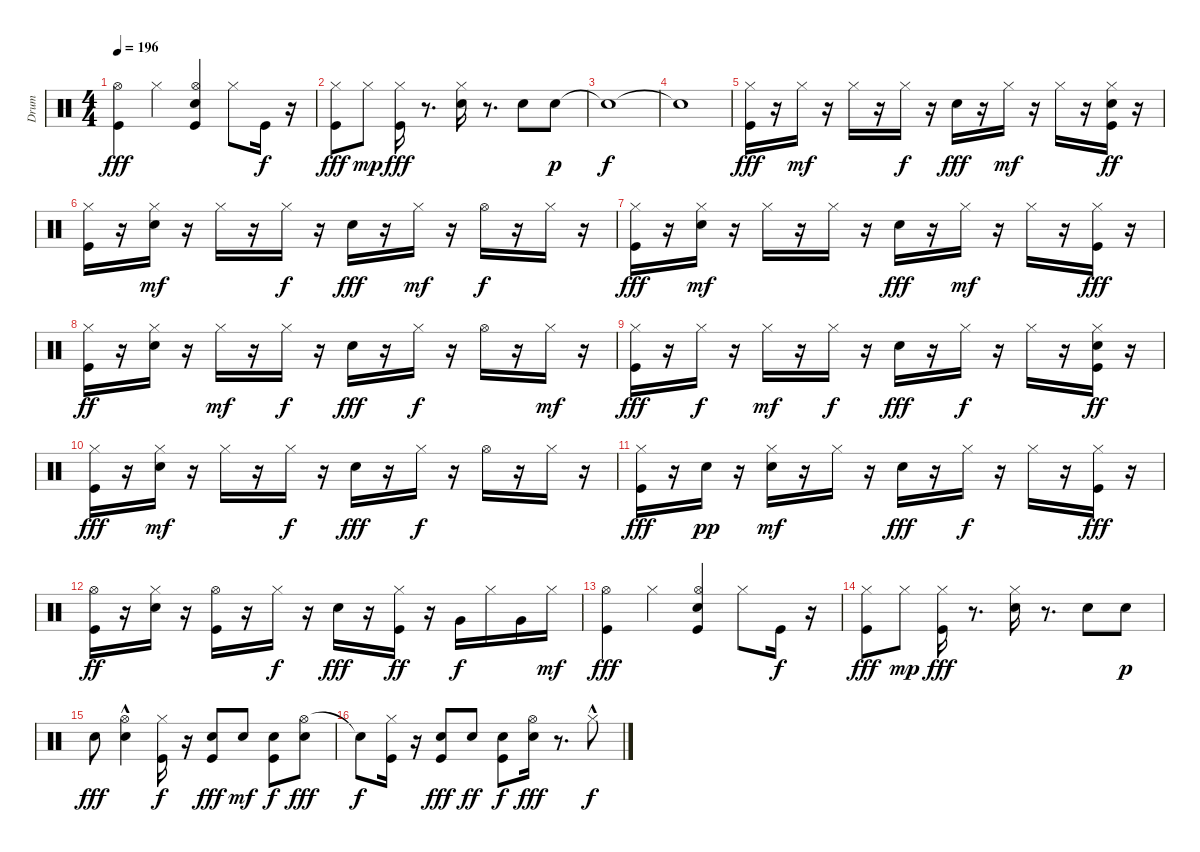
\track ("Drum" "Drum") {instrument percussion}
\staff {score}
\articulation defaults
\ts (4 4)
\tempo 196
\clef neutral
\ks c
("Kick (hit)" "Hi-Hat (open)").4{dy fff} "Hi-Hat (closed)".4 ("Kick (hit)" "Hi-Hat (open)" "Snare (hit) 2").4 "Hi-Hat (closed)".8 "Kick (hit)".16{dy f} r.16 |
("Kick (hit)" "Hi-Hat (closed)").8{dy fff} "Hi-Hat (closed)".8{dy mp} ("Kick (hit)" "Hi-Hat (closed)").16{dy fff} r.8{d} ("Snare (hit) 2" "Hi-Hat (closed)").16 r.8{d} "Snare (hit) 2".8 "Snare (hit) 2".8{dy p} |
"Snare (hit)"{t}.1{dy f} |
"Snare (hit)"{t}.1 |
("Hi-Hat (closed)" "Kick (hit)").16{dy fff} r.16 "Hi-Hat (closed)".16{dy mf} r.16 "Hi-Hat (closed)".16 r.16 "Hi-Hat (closed)".16{dy f} r.16 "Snare (hit) 2".16{dy fff} r.16 "Hi-Hat (closed)".16{dy mf} r.16 "Hi-Hat (closed)".16 r.16 ("Snare (hit) 2" "Hi-Hat (closed)" "Kick (hit)").16{dy ff} r.16 |
("Hi-Hat (closed)" "Kick (hit)").16 r.16 ("Snare (hit) 2" "Hi-Hat (closed)").16{dy mf} r.16 "Hi-Hat (closed)".16 r.16 "Hi-Hat (closed)".16{dy f} r.16 "Snare (hit) 2".16{dy fff} r.16 "Hi-Hat (closed)".16{dy mf} r.16 "Hi-Hat (open)".16{dy f} r.16 "Hi-Hat (closed)".16 r.16 |
("Hi-Hat (closed)" "Kick (hit)").16{dy fff} r.16 ("Snare (hit) 2" "Hi-Hat (closed)").16{dy mf} r.16 "Hi-Hat (closed)".16 r.16 "Hi-Hat (closed)".16 r.16 "Snare (hit) 2".16{dy fff} r.16 "Hi-Hat (closed)".16{dy mf} r.16 "Hi-Hat (closed)".16 r.16 ("Hi-Hat (closed)" "Kick (hit)").16{dy fff} r.16 |
("Hi-Hat (closed)" "Kick (hit)").16{dy ff} r.16 ("Snare (hit) 2" "Hi-Hat (closed)").16 r.16 "Hi-Hat (closed)".16{dy mf} r.16 "Hi-Hat (closed)".16{dy f} r.16 "Snare (hit) 2".16{dy fff} r.16 "Hi-Hat (closed)".16{dy f} r.16 "Hi-Hat (open)".16 r.16 "Hi-Hat (closed)".16{dy mf} r.16 |
("Hi-Hat (closed)" "Kick (hit)").16{dy fff} r.16 "Hi-Hat (closed)".16{dy f} r.16 "Hi-Hat (closed)".16{dy mf} r.16 "Hi-Hat (closed)".16{dy f} r.16 "Snare (hit) 2".16{dy fff} r.16 "Hi-Hat (closed)".16{dy f} r.16 "Hi-Hat (closed)".16 r.16 ("Snare (hit) 2" "Hi-Hat (closed)" "Kick (hit)").16{dy ff} r.16 |
("Hi-Hat (closed)" "Kick (hit)").16{dy fff} r.16 ("Snare (hit) 2" "Hi-Hat (closed)").16{dy mf} r.16 "Hi-Hat (closed)".16 r.16 "Hi-Hat (closed)".16{dy f} r.16 "Snare (hit) 2".16{dy fff} r.16 "Hi-Hat (closed)".16{dy f} r.16 "Hi-Hat (open)".16 r.16 "Hi-Hat (closed)".16 r.16 |
("Hi-Hat (closed)" "Kick (hit)").16{dy fff} r.16 "Snare (hit) 2".16{dy pp} r.16 ("Snare (hit) 2" "Hi-Hat (closed)").16{dy mf} r.16 "Hi-Hat (closed)".16 r.16 "Snare (hit) 2".16{dy fff} r.16 "Hi-Hat (closed)".16{dy f} r.16 "Hi-Hat (closed)".16 r.16 ("Kick (hit)" "Hi-Hat (closed)").16{dy fff} r.16 |
("Hi-Hat (open)" "Kick (hit)").16{dy ff} r.16 ("Snare (hit) 2" "Hi-Hat (closed)").16 r.16 ("Hi-Hat (open)" "Kick (hit)").16 r.16 "Hi-Hat (closed)".16{dy f} r.16 "Snare (hit) 2".16{dy fff} r.16 ("Kick (hit)" "Hi-Hat (closed)").16{dy ff} r.16 "Very Low Tom (hit)".16{dy f} "Hi-Hat (closed)".16 "Very Low Tom (hit)".16 "Hi-Hat (closed)".16{dy mf} |
("Kick (hit)" "Hi-Hat (open)").4{dy fff} "Hi-Hat (closed)".4 ("Kick (hit)" "Hi-Hat (open)" "Snare (hit) 2").4 "Hi-Hat (closed)".8 "Kick (hit)".16{dy f} r.16 |
("Kick (hit)" "Hi-Hat (closed)").8{dy fff} "Hi-Hat (closed)".8{dy mp} ("Kick (hit)" "Hi-Hat (closed)").16{dy fff} r.8{d} ("Snare (hit) 2" "Hi-Hat (closed)").16 r.8{d} "Snare (hit) 2".8 "Snare (hit) 2".8{dy p} |
"Snare (hit) 2".8{dy fff} ("Hi-Hat (open)" "Snare (hit) 2"{hac}).4 ("Hi-Hat (closed)" "Kick (hit)").16{dy f} r.16 ("Kick (hit)" "Snare (hit) 2").8{dy fff} "Snare (hit) 2".8{dy mf} ("Kick (hit)" "Snare (hit) 2").8{dy f} ("Hi-Hat (open)" "Snare (hit) 2").8{dy fff} |
"Snare (hit)"{t}.8{dy f} ("Hi-Hat (closed)" "Kick (hit)").16 r.16 ("Kick (hit)" "Snare (hit) 2").8{dy fff} "Snare (hit) 2".8{dy ff} ("Kick (hit)" "Snare (hit) 2").8{dy f} ("Hi-Hat (open)" "Snare (hit) 2").16{dy fff} r.8{d} "Hi-Hat (closed)"{hac}.8{dy f}
